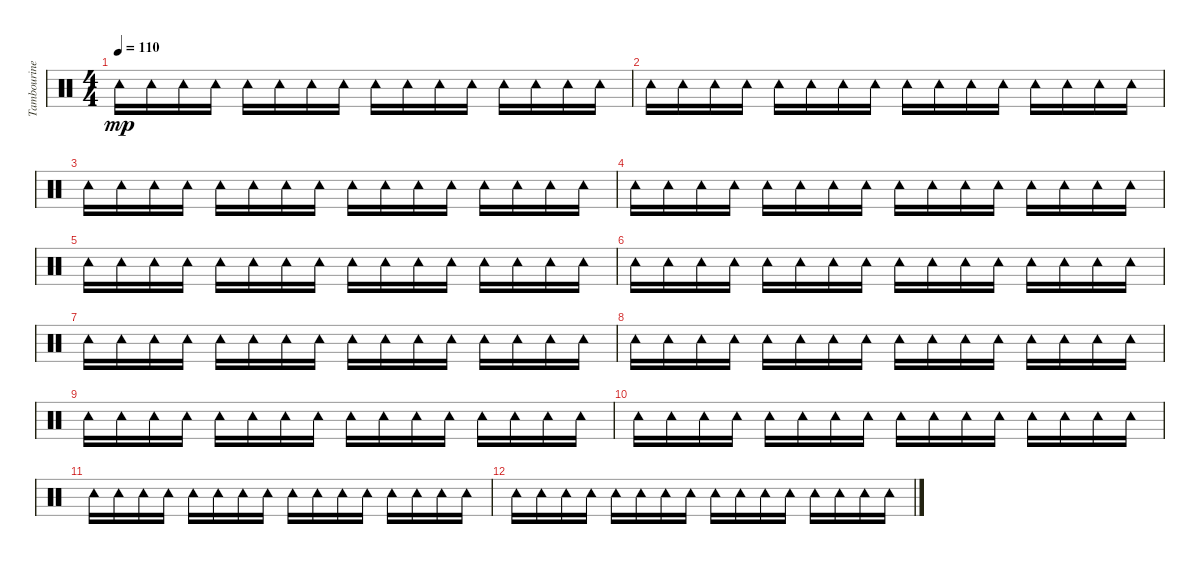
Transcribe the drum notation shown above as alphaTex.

\track ("Tambourine" "Tambourine") {instrument percussion}
\staff {score}
\articulation defaults
\ts (4 4)
\tempo 110
\clef neutral
\ks c "Tambourine (hit)".16{dy mp} "Tambourine (hit)".16 "Tambourine (hit)".16 "Tambourine (hit)".16 "Tambourine (hit)".16 "Tambourine (hit)".16 "Tambourine (hit)".16 "Tambourine (hit)".16 "Tambourine (hit)".16 "Tambourine (hit)".16 "Tambourine (hit)".16 "Tambourine (hit)".16 "Tambourine (hit)".16 "Tambourine (hit)".16 "Tambourine (hit)".16 "Tambourine (hit)".16
|
"Tambourine (hit)".16 "Tambourine (hit)".16 "Tambourine (hit)".16 "Tambourine (hit)".16 "Tambourine (hit)".16 "Tambourine (hit)".16 "Tambourine (hit)".16 "Tambourine (hit)".16 "Tambourine (hit)".16 "Tambourine (hit)".16 "Tambourine (hit)".16 "Tambourine (hit)".16 "Tambourine (hit)".16 "Tambourine (hit)".16 "Tambourine (hit)".16 "Tambourine (hit)".16 |
"Tambourine (hit)".16 "Tambourine (hit)".16 "Tambourine (hit)".16 "Tambourine (hit)".16 "Tambourine (hit)".16 "Tambourine (hit)".16 "Tambourine (hit)".16 "Tambourine (hit)".16 "Tambourine (hit)".16 "Tambourine (hit)".16 "Tambourine (hit)".16 "Tambourine (hit)".16 "Tambourine (hit)".16 "Tambourine (hit)".16 "Tambourine (hit)".16 "Tambourine (hit)".16 |
"Tambourine (hit)".16 "Tambourine (hit)".16 "Tambourine (hit)".16 "Tambourine (hit)".16 "Tambourine (hit)".16 "Tambourine (hit)".16 "Tambourine (hit)".16 "Tambourine (hit)".16 "Tambourine (hit)".16 "Tambourine (hit)".16 "Tambourine (hit)".16 "Tambourine (hit)".16 "Tambourine (hit)".16 "Tambourine (hit)".16 "Tambourine (hit)".16 "Tambourine (hit)".16 |
"Tambourine (hit)".16 "Tambourine (hit)".16 "Tambourine (hit)".16 "Tambourine (hit)".16 "Tambourine (hit)".16 "Tambourine (hit)".16 "Tambourine (hit)".16 "Tambourine (hit)".16 "Tambourine (hit)".16 "Tambourine (hit)".16 "Tambourine (hit)".16 "Tambourine (hit)".16 "Tambourine (hit)".16 "Tambourine (hit)".16 "Tambourine (hit)".16 "Tambourine (hit)".16 |
"Tambourine (hit)".16 "Tambourine (hit)".16 "Tambourine (hit)".16 "Tambourine (hit)".16 "Tambourine (hit)".16 "Tambourine (hit)".16 "Tambourine (hit)".16 "Tambourine (hit)".16 "Tambourine (hit)".16 "Tambourine (hit)".16 "Tambourine (hit)".16 "Tambourine (hit)".16 "Tambourine (hit)".16 "Tambourine (hit)".16 "Tambourine (hit)".16 "Tambourine (hit)".16 |
"Tambourine (hit)".16 "Tambourine (hit)".16 "Tambourine (hit)".16 "Tambourine (hit)".16 "Tambourine (hit)".16 "Tambourine (hit)".16 "Tambourine (hit)".16 "Tambourine (hit)".16 "Tambourine (hit)".16 "Tambourine (hit)".16 "Tambourine (hit)".16 "Tambourine (hit)".16 "Tambourine (hit)".16 "Tambourine (hit)".16 "Tambourine (hit)".16 "Tambourine (hit)".16 |
"Tambourine (hit)".16 "Tambourine (hit)".16 "Tambourine (hit)".16 "Tambourine (hit)".16 "Tambourine (hit)".16 "Tambourine (hit)".16 "Tambourine (hit)".16 "Tambourine (hit)".16 "Tambourine (hit)".16 "Tambourine (hit)".16 "Tambourine (hit)".16 "Tambourine (hit)".16 "Tambourine (hit)".16 "Tambourine (hit)".16 "Tambourine (hit)".16 "Tambourine (hit)".16 |
"Tambourine (hit)".16 "Tambourine (hit)".16 "Tambourine (hit)".16 "Tambourine (hit)".16 "Tambourine (hit)".16 "Tambourine (hit)".16 "Tambourine (hit)".16 "Tambourine (hit)".16 "Tambourine (hit)".16 "Tambourine (hit)".16 "Tambourine (hit)".16 "Tambourine (hit)".16 "Tambourine (hit)".16 "Tambourine (hit)".16 "Tambourine (hit)".16 "Tambourine (hit)".16 |
"Tambourine (hit)".16 "Tambourine (hit)".16 "Tambourine (hit)".16 "Tambourine (hit)".16 "Tambourine (hit)".16 "Tambourine (hit)".16 "Tambourine (hit)".16 "Tambourine (hit)".16 "Tambourine (hit)".16 "Tambourine (hit)".16 "Tambourine (hit)".16 "Tambourine (hit)".16 "Tambourine (hit)".16 "Tambourine (hit)".16 "Tambourine (hit)".16 "Tambourine (hit)".16 |
"Tambourine (hit)".16 "Tambourine (hit)".16 "Tambourine (hit)".16 "Tambourine (hit)".16 "Tambourine (hit)".16 "Tambourine (hit)".16 "Tambourine (hit)".16 "Tambourine (hit)".16 "Tambourine (hit)".16 "Tambourine (hit)".16 "Tambourine (hit)".16 "Tambourine (hit)".16 "Tambourine (hit)".16 "Tambourine (hit)".16 "Tambourine (hit)".16 "Tambourine (hit)".16 |
"Tambourine (hit)".16 "Tambourine (hit)".16 "Tambourine (hit)".16 "Tambourine (hit)".16 "Tambourine (hit)".16 "Tambourine (hit)".16 "Tambourine (hit)".16 "Tambourine (hit)".16 "Tambourine (hit)".16 "Tambourine (hit)".16 "Tambourine (hit)".16 "Tambourine (hit)".16 "Tambourine (hit)".16 "Tambourine (hit)".16 "Tambourine (hit)".16 "Tambourine (hit)".16
